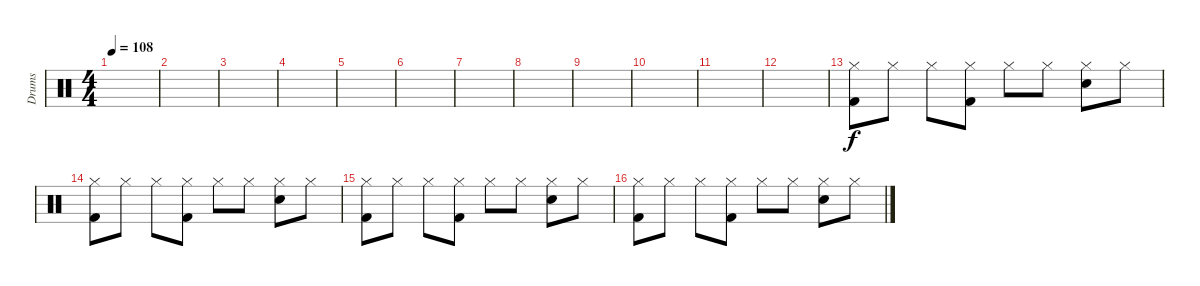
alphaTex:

\track ("Drums" "Drums") {instrument percussion}
\staff {score}
\articulation defaults
\ts (4 4)
\tempo 108
\clef neutral
\ks c
|
|
|
|
|
|
|
|
|
|
|
|
("Hi-Hat (closed)" "Kick (hit) 2").8 "Hi-Hat (closed)".8 "Hi-Hat (closed)".8 ("Hi-Hat (closed)" "Kick (hit) 2").8 "Hi-Hat (closed)".8 "Hi-Hat (closed)".8 ("Hi-Hat (closed)" "Snare (hit) 2").8 "Hi-Hat (closed)".8 |
("Hi-Hat (closed)" "Kick (hit) 2").8 "Hi-Hat (closed)".8 "Hi-Hat (closed)".8 ("Hi-Hat (closed)" "Kick (hit) 2").8 "Hi-Hat (closed)".8 "Hi-Hat (closed)".8 ("Hi-Hat (closed)" "Snare (hit) 2").8 "Hi-Hat (closed)".8 |
("Hi-Hat (closed)" "Kick (hit) 2").8 "Hi-Hat (closed)".8 "Hi-Hat (closed)".8 ("Hi-Hat (closed)" "Kick (hit) 2").8 "Hi-Hat (closed)".8 "Hi-Hat (closed)".8 ("Hi-Hat (closed)" "Snare (hit) 2").8 "Hi-Hat (closed)".8 |
("Hi-Hat (closed)" "Kick (hit) 2").8 "Hi-Hat (closed)".8 "Hi-Hat (closed)".8 ("Hi-Hat (closed)" "Kick (hit) 2").8 "Hi-Hat (closed)".8 "Hi-Hat (closed)".8 ("Hi-Hat (closed)" "Snare (hit) 2").8 "Hi-Hat (closed)".8
